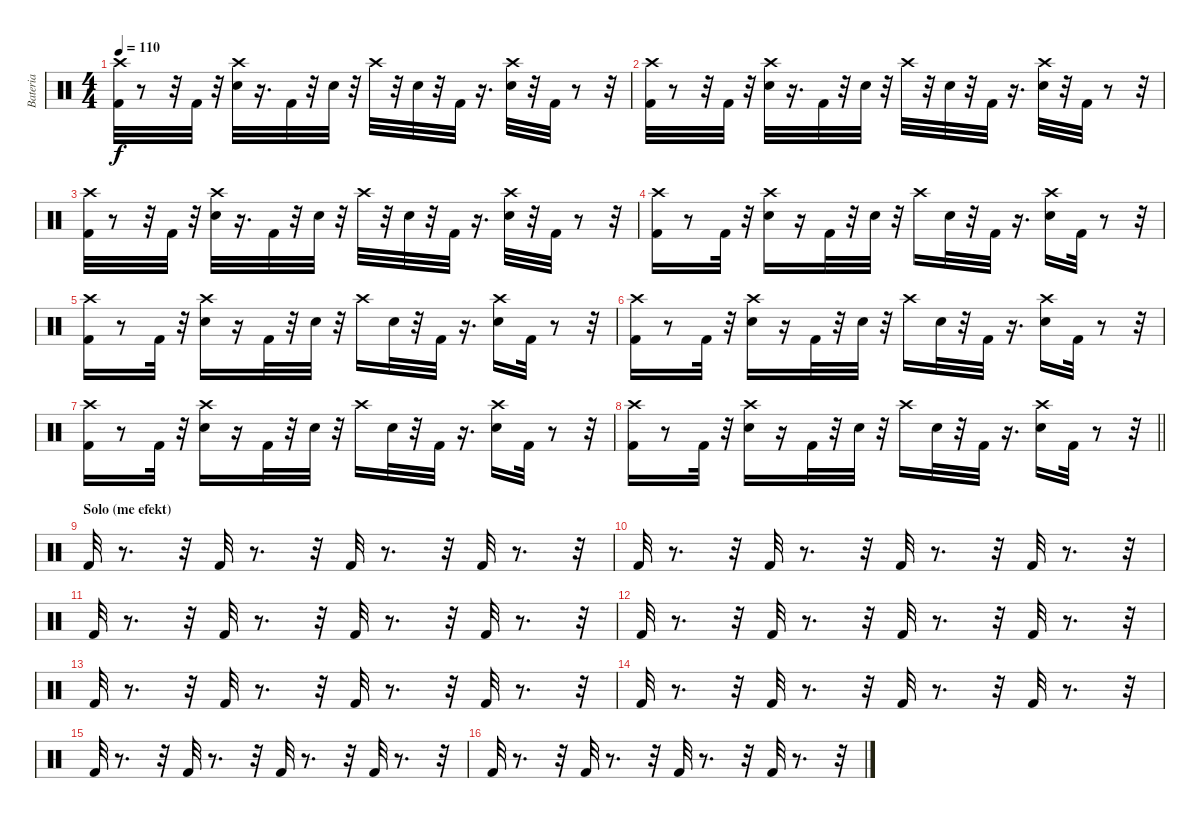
\track ("Bateria" "Bateria") {instrument percussion}
\staff {score}
\articulation defaults
\ts (4 4)
\tempo 110
\clef neutral
\ks c
("Kick (hit) 2" "Crash high (hit)").32{dy f} r.8 r.32 "Kick (hit) 2".32 r.32 ("Snare (hit) 2" "Crash high (hit)").32 r.16{d} "Kick (hit) 2".32 r.32 "Snare (hit) 2".32 r.32 "Crash high (hit)".32 r.32 "Snare (hit) 2".32 r.32 "Kick (hit) 2".32 r.16{d} ("Snare (hit) 2" "Crash high (hit)").32 r.32 "Kick (hit) 2".32 r.8 r.32 |
("Kick (hit) 2" "Crash high (hit)").32 r.8 r.32 "Kick (hit) 2".32 r.32 ("Snare (hit) 2" "Crash high (hit)").32 r.16{d} "Kick (hit) 2".32 r.32 "Snare (hit) 2".32 r.32 "Crash high (hit)".32 r.32 "Snare (hit) 2".32 r.32 "Kick (hit) 2".32 r.16{d} ("Snare (hit) 2" "Crash high (hit)").32 r.32 "Kick (hit) 2".32 r.8 r.32 |
("Kick (hit) 2" "Crash high (hit)").32 r.8 r.32 "Kick (hit) 2".32 r.32 ("Snare (hit) 2" "Crash high (hit)").32 r.16{d} "Kick (hit) 2".32 r.32 "Snare (hit) 2".32 r.32 "Crash high (hit)".32 r.32 "Snare (hit) 2".32 r.32 "Kick (hit) 2".32 r.16{d} ("Snare (hit) 2" "Crash high (hit)").32 r.32 "Kick (hit) 2".32 r.8 r.32 |
("Kick (hit) 2" "Crash high (hit)").16 r.8 "Kick (hit) 2".32 r.32 ("Snare (hit) 2" "Crash high (hit)").16 r.16 "Kick (hit) 2".32 r.32 "Snare (hit) 2".32 r.32 "Crash high (hit)".16 "Snare (hit) 2".32 r.32 "Kick (hit) 2".32 r.16{d} ("Snare (hit) 2" "Crash high (hit)").16 "Kick (hit) 2".32 r.8 r.32 |
("Kick (hit) 2" "Crash high (hit)").16 r.8 "Kick (hit) 2".32 r.32 ("Snare (hit) 2" "Crash high (hit)").16 r.16 "Kick (hit) 2".32 r.32 "Snare (hit) 2".32 r.32 "Crash high (hit)".16 "Snare (hit) 2".32 r.32 "Kick (hit) 2".32 r.16{d} ("Snare (hit) 2" "Crash high (hit)").16 "Kick (hit) 2".32 r.8 r.32 |
("Kick (hit) 2" "Crash high (hit)").16 r.8 "Kick (hit) 2".32 r.32 ("Snare (hit) 2" "Crash high (hit)").16 r.16 "Kick (hit) 2".32 r.32 "Snare (hit) 2".32 r.32 "Crash high (hit)".16 "Snare (hit) 2".32 r.32 "Kick (hit) 2".32 r.16{d} ("Snare (hit) 2" "Crash high (hit)").16 "Kick (hit) 2".32 r.8 r.32 |
("Kick (hit) 2" "Crash high (hit)").16 r.8 "Kick (hit) 2".32 r.32 ("Snare (hit) 2" "Crash high (hit)").16 r.16 "Kick (hit) 2".32 r.32 "Snare (hit) 2".32 r.32 "Crash high (hit)".16 "Snare (hit) 2".32 r.32 "Kick (hit) 2".32 r.16{d} ("Snare (hit) 2" "Crash high (hit)").16 "Kick (hit) 2".32 r.8 r.32 |
\barLineRight lightlight
("Kick (hit) 2" "Crash high (hit)").16 r.8 "Kick (hit) 2".32 r.32 ("Snare (hit) 2" "Crash high (hit)").16 r.16 "Kick (hit) 2".32 r.32 "Snare (hit) 2".32 r.32 "Crash high (hit)".16 "Snare (hit) 2".32 r.32 "Kick (hit) 2".32 r.16{d} ("Crash high (hit)" "Snare (hit) 2").16 "Kick (hit) 2".32 r.8 r.32 |
\section ("" "Solo (me efekt)")
"Kick (hit) 2".32 r.8{d} r.32 "Kick (hit) 2".32 r.8{d} r.32 "Kick (hit) 2".32 r.8{d} r.32 "Kick (hit) 2".32 r.8{d} r.32 |
"Kick (hit) 2".32 r.8{d} r.32 "Kick (hit) 2".32 r.8{d} r.32 "Kick (hit) 2".32 r.8{d} r.32 "Kick (hit) 2".32 r.8{d} r.32 |
"Kick (hit) 2".32 r.8{d} r.32 "Kick (hit) 2".32 r.8{d} r.32 "Kick (hit) 2".32 r.8{d} r.32 "Kick (hit) 2".32 r.8{d} r.32 |
"Kick (hit) 2".32 r.8{d} r.32 "Kick (hit) 2".32 r.8{d} r.32 "Kick (hit) 2".32 r.8{d} r.32 "Kick (hit) 2".32 r.8{d} r.32 |
"Kick (hit) 2".32 r.8{d} r.32 "Kick (hit) 2".32 r.8{d} r.32 "Kick (hit) 2".32 r.8{d} r.32 "Kick (hit) 2".32 r.8{d} r.32 |
"Kick (hit) 2".32 r.8{d} r.32 "Kick (hit) 2".32 r.8{d} r.32 "Kick (hit) 2".32 r.8{d} r.32 "Kick (hit) 2".32 r.8{d} r.32 |
"Kick (hit) 2".32 r.8{d} r.32 "Kick (hit) 2".32 r.8{d} r.32 "Kick (hit) 2".32 r.8{d} r.32 "Kick (hit) 2".32 r.8{d} r.32 |
"Kick (hit) 2".32 r.8{d} r.32 "Kick (hit) 2".32 r.8{d} r.32 "Kick (hit) 2".32 r.8{d} r.32 "Kick (hit) 2".32 r.8{d} r.32
